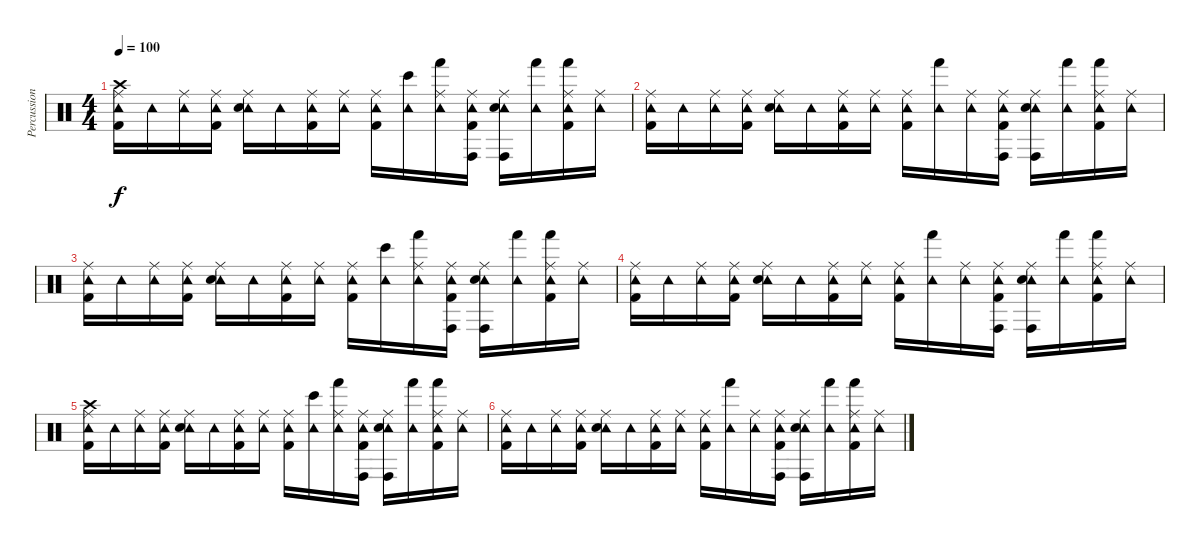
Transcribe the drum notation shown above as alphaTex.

\track ("Percussion" "Percussion") {instrument percussion}
\staff {score}
\articulation defaults
\ts (4 4)
\tempo 100
\clef neutral
\ks c
("Tambourine (hit)" "Ride (middle)" "Crash high (hit)" "Kick (hit) 2").16{dy f} "Tambourine (hit)".16 ("Tambourine (hit)" "Ride (middle)").16 ("Tambourine (hit)" "Ride (middle)" "Kick (hit) 2").16 ("Tambourine (hit)" "Ride (middle)" "Snare (hit) 2").16 "Tambourine (hit)".16 ("Tambourine (hit)" "Ride (middle)" "Kick (hit) 2").16 ("Tambourine (hit)" "Ride (middle)").16 ("Tambourine (hit)" "Ride (middle)" "Kick (hit) 2").16 ("Tambourine (hit)" "Bongo High (hit)").16 ("Tambourine (hit)" "Ride (middle)" "Hand (hit)").16 ("Tambourine (hit)" "Ride (middle)" "Conga high (hit)" "Kick (hit) 2").16 ("Tambourine (hit)" "Ride (middle)" "Conga high (hit)" "Snare (hit) 2").16 ("Tambourine (hit)" "Hand (hit)").16 ("Tambourine (hit)" "Ride (middle)" "Hand (hit)" "Kick (hit) 2").16 ("Tambourine (hit)" "Ride (middle)").16 |
("Tambourine (hit)" "Ride (middle)" "Kick (hit) 2").16 "Tambourine (hit)".16 ("Tambourine (hit)" "Ride (middle)").16 ("Tambourine (hit)" "Ride (middle)" "Kick (hit) 2").16 ("Tambourine (hit)" "Ride (middle)" "Snare (hit) 2").16 "Tambourine (hit)".16 ("Tambourine (hit)" "Ride (middle)" "Kick (hit) 2").16 ("Tambourine (hit)" "Ride (middle)").16 ("Tambourine (hit)" "Ride (middle)" "Kick (hit) 2").16 ("Tambourine (hit)" "Hand (hit)").16 ("Tambourine (hit)" "Ride (middle)").16 ("Tambourine (hit)" "Ride (middle)" "Conga high (hit)" "Kick (hit) 2").16 ("Tambourine (hit)" "Ride (middle)" "Conga high (hit)" "Snare (hit) 2").16 ("Tambourine (hit)" "Hand (hit)").16 ("Tambourine (hit)" "Ride (middle)" "Hand (hit)" "Kick (hit) 2").16 ("Tambourine (hit)" "Ride (middle)").16 |
("Tambourine (hit)" "Ride (middle)" "Kick (hit) 2").16 "Tambourine (hit)".16 ("Tambourine (hit)" "Ride (middle)").16 ("Tambourine (hit)" "Ride (middle)" "Kick (hit) 2").16 ("Tambourine (hit)" "Ride (middle)" "Snare (hit) 2").16 "Tambourine (hit)".16 ("Tambourine (hit)" "Ride (middle)" "Kick (hit) 2").16 ("Tambourine (hit)" "Ride (middle)").16 ("Tambourine (hit)" "Ride (middle)" "Kick (hit) 2").16 ("Tambourine (hit)" "Bongo High (hit)").16 ("Tambourine (hit)" "Ride (middle)" "Hand (hit)").16 ("Tambourine (hit)" "Ride (middle)" "Conga high (hit)" "Kick (hit) 2").16 ("Tambourine (hit)" "Ride (middle)" "Conga high (hit)" "Snare (hit) 2").16 ("Tambourine (hit)" "Hand (hit)").16 ("Tambourine (hit)" "Ride (middle)" "Hand (hit)" "Kick (hit) 2").16 ("Tambourine (hit)" "Ride (middle)").16 |
("Tambourine (hit)" "Ride (middle)" "Kick (hit) 2").16 "Tambourine (hit)".16 ("Tambourine (hit)" "Ride (middle)").16 ("Tambourine (hit)" "Ride (middle)" "Kick (hit) 2").16 ("Tambourine (hit)" "Ride (middle)" "Snare (hit) 2").16 "Tambourine (hit)".16 ("Tambourine (hit)" "Ride (middle)" "Kick (hit) 2").16 ("Tambourine (hit)" "Ride (middle)").16 ("Tambourine (hit)" "Ride (middle)" "Kick (hit) 2").16 ("Tambourine (hit)" "Hand (hit)").16 ("Tambourine (hit)" "Ride (middle)").16 ("Tambourine (hit)" "Ride (middle)" "Conga high (hit)" "Kick (hit) 2").16 ("Tambourine (hit)" "Ride (middle)" "Conga high (hit)" "Snare (hit) 2").16 ("Tambourine (hit)" "Hand (hit)").16 ("Tambourine (hit)" "Ride (middle)" "Hand (hit)" "Kick (hit) 2").16 ("Tambourine (hit)" "Ride (middle)").16 |
("Tambourine (hit)" "Ride (middle)" "Crash high (hit)" "Kick (hit) 2").16 "Tambourine (hit)".16 ("Tambourine (hit)" "Ride (middle)").16 ("Tambourine (hit)" "Ride (middle)" "Kick (hit) 2").16 ("Tambourine (hit)" "Ride (middle)" "Snare (hit) 2").16 "Tambourine (hit)".16 ("Tambourine (hit)" "Ride (middle)" "Kick (hit) 2").16 ("Tambourine (hit)" "Ride (middle)").16 ("Tambourine (hit)" "Ride (middle)" "Kick (hit) 2").16 ("Tambourine (hit)" "Bongo High (hit)").16 ("Tambourine (hit)" "Ride (middle)" "Hand (hit)").16 ("Tambourine (hit)" "Ride (middle)" "Conga high (hit)" "Kick (hit) 2").16 ("Tambourine (hit)" "Ride (middle)" "Conga high (hit)" "Snare (hit) 2").16 ("Tambourine (hit)" "Hand (hit)").16 ("Tambourine (hit)" "Ride (middle)" "Hand (hit)" "Kick (hit) 2").16 ("Tambourine (hit)" "Ride (middle)").16 |
("Tambourine (hit)" "Ride (middle)" "Kick (hit) 2").16 "Tambourine (hit)".16 ("Tambourine (hit)" "Ride (middle)").16 ("Tambourine (hit)" "Ride (middle)" "Kick (hit) 2").16 ("Tambourine (hit)" "Ride (middle)" "Snare (hit) 2").16 "Tambourine (hit)".16 ("Tambourine (hit)" "Ride (middle)" "Kick (hit) 2").16 ("Tambourine (hit)" "Ride (middle)").16 ("Tambourine (hit)" "Ride (middle)" "Kick (hit) 2").16 ("Tambourine (hit)" "Hand (hit)").16 ("Tambourine (hit)" "Ride (middle)").16 ("Tambourine (hit)" "Ride (middle)" "Conga high (hit)" "Kick (hit) 2").16 ("Tambourine (hit)" "Ride (middle)" "Conga high (hit)" "Snare (hit) 2").16 ("Tambourine (hit)" "Hand (hit)").16 ("Tambourine (hit)" "Ride (middle)" "Hand (hit)" "Kick (hit) 2").16 ("Tambourine (hit)" "Ride (middle)").16
